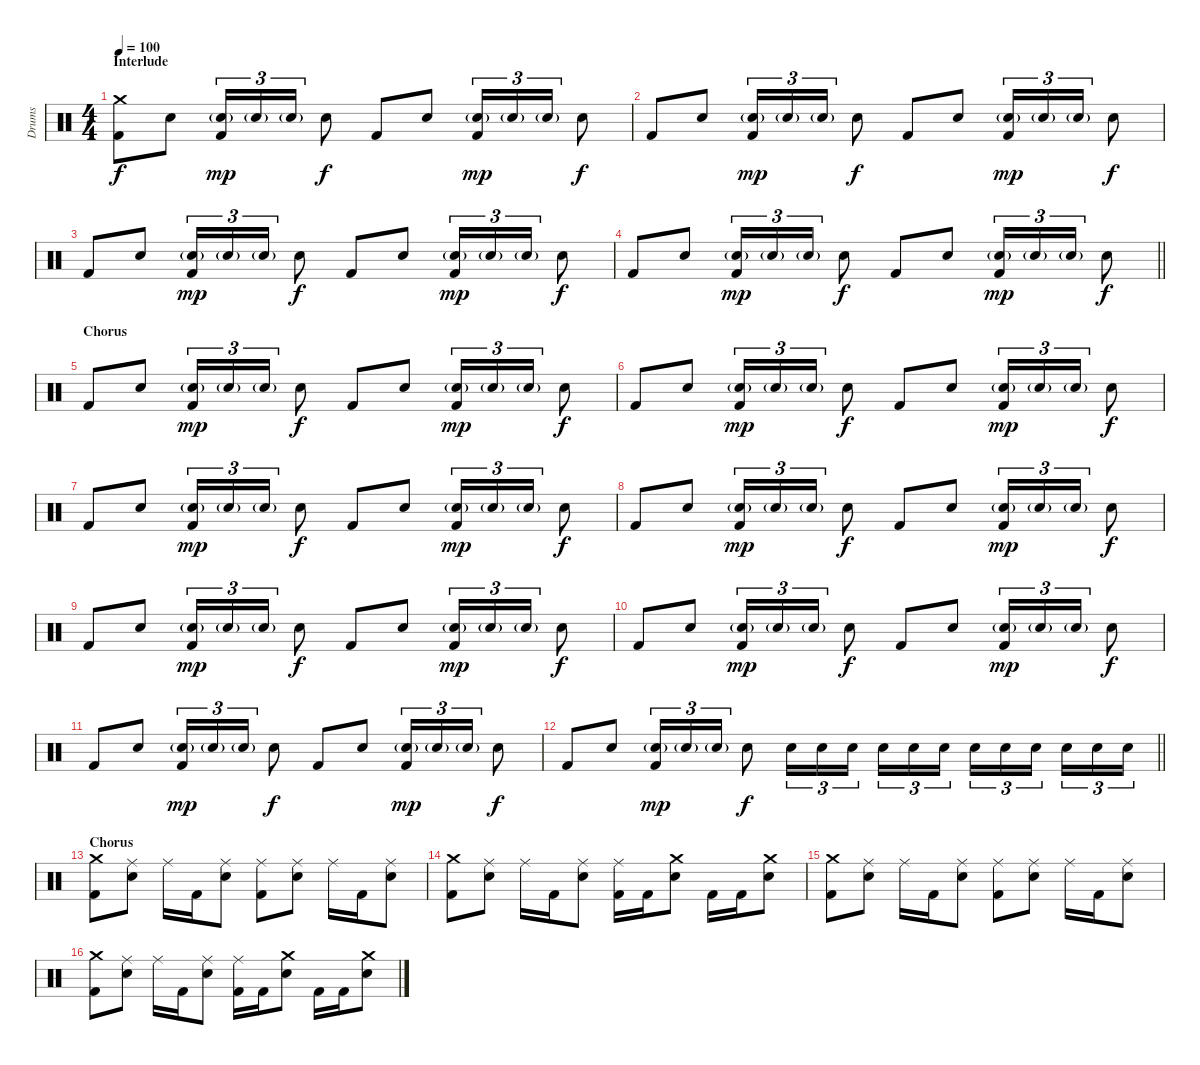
\track ("Drums" "Drums") {instrument percussion}
\staff {score}
\articulation defaults
\ts (4 4)
\section ("" "Interlude")
\tempo 100
\clef neutral
\ks c
("Crash medium (hit)" "Kick (hit) 2").8{dy f} "Electric Snare (hit)".8 ("Electric Snare (hit)"{g} "Kick (hit) 2").16{tu (3 2) dy mp} "Electric Snare (hit)"{g}.16{tu (3 2)} "Electric Snare (hit)"{g}.16{tu (3 2)} "Electric Snare (hit)".8{dy f} "Kick (hit) 2".8 "Electric Snare (hit)".8 ("Electric Snare (hit)"{g} "Kick (hit) 2").16{tu (3 2) dy mp} "Electric Snare (hit)"{g}.16{tu (3 2)} "Electric Snare (hit)"{g}.16{tu (3 2)} "Electric Snare (hit)".8{dy f} |
"Kick (hit) 2".8 "Electric Snare (hit)".8 ("Electric Snare (hit)"{g} "Kick (hit) 2").16{tu (3 2) dy mp} "Electric Snare (hit)"{g}.16{tu (3 2)} "Electric Snare (hit)"{g}.16{tu (3 2)} "Electric Snare (hit)".8{dy f} "Kick (hit) 2".8 "Electric Snare (hit)".8 ("Electric Snare (hit)"{g} "Kick (hit) 2").16{tu (3 2) dy mp} "Electric Snare (hit)"{g}.16{tu (3 2)} "Electric Snare (hit)"{g}.16{tu (3 2)} "Electric Snare (hit)".8{dy f} |
"Kick (hit) 2".8 "Electric Snare (hit)".8 ("Electric Snare (hit)"{g} "Kick (hit) 2").16{tu (3 2) dy mp} "Electric Snare (hit)"{g}.16{tu (3 2)} "Electric Snare (hit)"{g}.16{tu (3 2)} "Electric Snare (hit)".8{dy f} "Kick (hit) 2".8 "Electric Snare (hit)".8 ("Electric Snare (hit)"{g} "Kick (hit) 2").16{tu (3 2) dy mp} "Electric Snare (hit)"{g}.16{tu (3 2)} "Electric Snare (hit)"{g}.16{tu (3 2)} "Electric Snare (hit)".8{dy f} |
\barLineRight lightlight "Kick (hit) 2".8 "Electric Snare (hit)".8
("Electric Snare (hit)"{g} "Kick (hit) 2").16{tu (3 2) dy mp} "Electric Snare (hit)"{g}.16{tu (3 2)} "Electric Snare (hit)"{g}.16{tu (3 2)} "Electric Snare (hit)".8{dy f} "Kick (hit) 2".8 "Electric Snare (hit)".8 ("Electric Snare (hit)"{g} "Kick (hit) 2").16{tu (3 2) dy mp} "Electric Snare (hit)"{g}.16{tu (3 2)} "Electric Snare (hit)"{g}.16{tu (3 2)} "Electric Snare (hit)".8{dy f} |
\section ("" "Chorus")
"Kick (hit) 2".8 "Electric Snare (hit)".8 ("Electric Snare (hit)"{g} "Kick (hit) 2").16{tu (3 2) dy mp} "Electric Snare (hit)"{g}.16{tu (3 2)} "Electric Snare (hit)"{g}.16{tu (3 2)} "Electric Snare (hit)".8{dy f} "Kick (hit) 2".8 "Electric Snare (hit)".8 ("Electric Snare (hit)"{g} "Kick (hit) 2").16{tu (3 2) dy mp} "Electric Snare (hit)"{g}.16{tu (3 2)} "Electric Snare (hit)"{g}.16{tu (3 2)} "Electric Snare (hit)".8{dy f} |
"Kick (hit) 2".8 "Electric Snare (hit)".8 ("Electric Snare (hit)"{g} "Kick (hit) 2").16{tu (3 2) dy mp} "Electric Snare (hit)"{g}.16{tu (3 2)} "Electric Snare (hit)"{g}.16{tu (3 2)} "Electric Snare (hit)".8{dy f} "Kick (hit) 2".8 "Electric Snare (hit)".8 ("Electric Snare (hit)"{g} "Kick (hit) 2").16{tu (3 2) dy mp} "Electric Snare (hit)"{g}.16{tu (3 2)} "Electric Snare (hit)"{g}.16{tu (3 2)} "Electric Snare (hit)".8{dy f} |
"Kick (hit) 2".8 "Electric Snare (hit)".8 ("Electric Snare (hit)"{g} "Kick (hit) 2").16{tu (3 2) dy mp} "Electric Snare (hit)"{g}.16{tu (3 2)} "Electric Snare (hit)"{g}.16{tu (3 2)} "Electric Snare (hit)".8{dy f} "Kick (hit) 2".8 "Electric Snare (hit)".8 ("Electric Snare (hit)"{g} "Kick (hit) 2").16{tu (3 2) dy mp} "Electric Snare (hit)"{g}.16{tu (3 2)} "Electric Snare (hit)"{g}.16{tu (3 2)} "Electric Snare (hit)".8{dy f} |
"Kick (hit) 2".8 "Electric Snare (hit)".8 ("Electric Snare (hit)"{g} "Kick (hit) 2").16{tu (3 2) dy mp} "Electric Snare (hit)"{g}.16{tu (3 2)} "Electric Snare (hit)"{g}.16{tu (3 2)} "Electric Snare (hit)".8{dy f} "Kick (hit) 2".8 "Electric Snare (hit)".8 ("Electric Snare (hit)"{g} "Kick (hit) 2").16{tu (3 2) dy mp} "Electric Snare (hit)"{g}.16{tu (3 2)} "Electric Snare (hit)"{g}.16{tu (3 2)} "Electric Snare (hit)".8{dy f} |
"Kick (hit) 2".8 "Electric Snare (hit)".8 ("Electric Snare (hit)"{g} "Kick (hit) 2").16{tu (3 2) dy mp} "Electric Snare (hit)"{g}.16{tu (3 2)} "Electric Snare (hit)"{g}.16{tu (3 2)} "Electric Snare (hit)".8{dy f} "Kick (hit) 2".8 "Electric Snare (hit)".8 ("Electric Snare (hit)"{g} "Kick (hit) 2").16{tu (3 2) dy mp} "Electric Snare (hit)"{g}.16{tu (3 2)} "Electric Snare (hit)"{g}.16{tu (3 2)} "Electric Snare (hit)".8{dy f} |
"Kick (hit) 2".8 "Electric Snare (hit)".8 ("Electric Snare (hit)"{g} "Kick (hit) 2").16{tu (3 2) dy mp} "Electric Snare (hit)"{g}.16{tu (3 2)} "Electric Snare (hit)"{g}.16{tu (3 2)} "Electric Snare (hit)".8{dy f} "Kick (hit) 2".8 "Electric Snare (hit)".8 ("Electric Snare (hit)"{g} "Kick (hit) 2").16{tu (3 2) dy mp} "Electric Snare (hit)"{g}.16{tu (3 2)} "Electric Snare (hit)"{g}.16{tu (3 2)} "Electric Snare (hit)".8{dy f} |
"Kick (hit) 2".8 "Electric Snare (hit)".8 ("Electric Snare (hit)"{g} "Kick (hit) 2").16{tu (3 2) dy mp} "Electric Snare (hit)"{g}.16{tu (3 2)} "Electric Snare (hit)"{g}.16{tu (3 2)} "Electric Snare (hit)".8{dy f} "Kick (hit) 2".8 "Electric Snare (hit)".8 ("Electric Snare (hit)"{g} "Kick (hit) 2").16{tu (3 2) dy mp} "Electric Snare (hit)"{g}.16{tu (3 2)} "Electric Snare (hit)"{g}.16{tu (3 2)} "Electric Snare (hit)".8{dy f} |
\barLineRight lightlight "Kick (hit) 2".8 "Electric Snare (hit)".8
("Electric Snare (hit)"{g} "Kick (hit) 2").16{tu (3 2) dy mp} "Electric Snare (hit)"{g}.16{tu (3 2)} "Electric Snare (hit)"{g}.16{tu (3 2)} "Electric Snare (hit)".8{dy f} "Electric Snare (hit)".16{tu (3 2)} "Electric Snare (hit)".16{tu (3 2)} "Electric Snare (hit)".16{tu (3 2)} "Electric Snare (hit)".16{tu (3 2)} "Electric Snare (hit)".16{tu (3 2)} "Electric Snare (hit)".16{tu (3 2)} "Electric Snare (hit)".16{tu (3 2)} "Electric Snare (hit)".16{tu (3 2)} "Electric Snare (hit)".16{tu (3 2)} "Electric Snare (hit)".16{tu (3 2)} "Electric Snare (hit)".16{tu (3 2)} "Electric Snare (hit)".16{tu (3 2)} |
\section ("" "Chorus")
("Crash medium (hit)" "Kick (hit) 2").8 ("Ride (middle)" "Electric Snare (hit)").8 "Ride (middle)".16 "Kick (hit) 2".16 ("Ride (middle)" "Electric Snare (hit)").8 ("Ride (middle)" "Kick (hit) 2").8 ("Ride (middle)" "Electric Snare (hit)").8 "Ride (middle)".16 "Kick (hit) 2".16 ("Ride (middle)" "Electric Snare (hit)").8 |
("Crash medium (hit)" "Kick (hit) 2").8 ("Ride (middle)" "Electric Snare (hit)").8 "Ride (middle)".16 "Kick (hit) 2".16 ("Ride (middle)" "Electric Snare (hit)").8 ("Ride (middle)" "Kick (hit) 2").16 "Kick (hit) 2".16 ("Crash medium (hit)" "Electric Snare (hit)").8 "Kick (hit) 2".16 "Kick (hit) 2".16 ("Crash medium (hit)" "Electric Snare (hit)").8 |
("Crash medium (hit)" "Kick (hit) 2").8 ("Ride (middle)" "Electric Snare (hit)").8 "Ride (middle)".16 "Kick (hit) 2".16 ("Ride (middle)" "Electric Snare (hit)").8 ("Ride (middle)" "Kick (hit) 2").8 ("Ride (middle)" "Electric Snare (hit)").8 "Ride (middle)".16 "Kick (hit) 2".16 ("Ride (middle)" "Electric Snare (hit)").8 |
("Crash medium (hit)" "Kick (hit) 2").8 ("Ride (middle)" "Electric Snare (hit)").8 "Ride (middle)".16 "Kick (hit) 2".16 ("Ride (middle)" "Electric Snare (hit)").8 ("Ride (middle)" "Kick (hit) 2").16 "Kick (hit) 2".16 ("Crash medium (hit)" "Electric Snare (hit)").8 "Kick (hit) 2".16 "Kick (hit) 2".16 ("Crash medium (hit)" "Electric Snare (hit)").8
